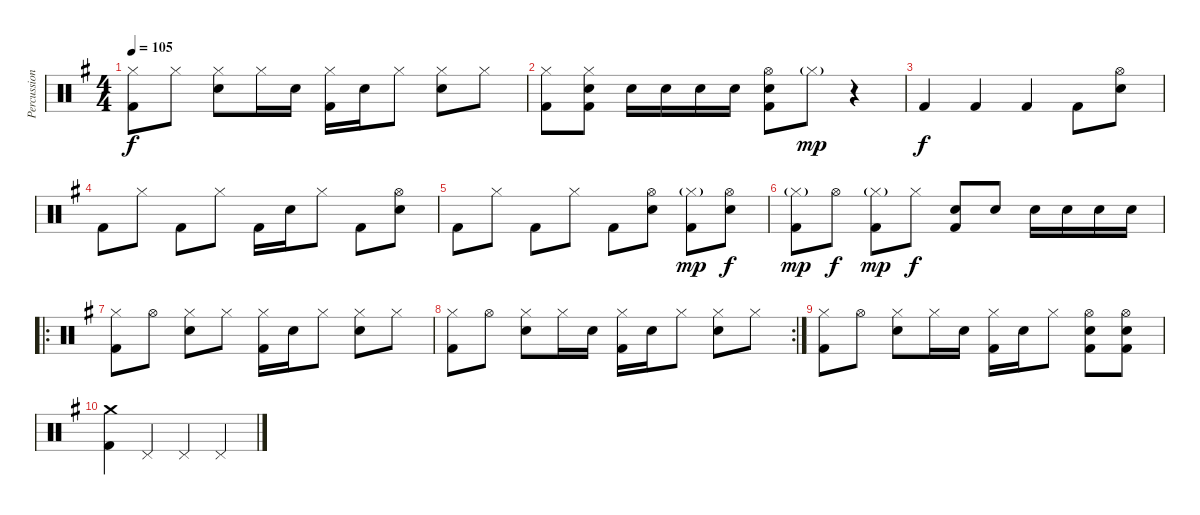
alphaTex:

\track ("Percussion" "Percussion") {instrument percussion}
\staff {score}
\articulation defaults
\ts (4 4)
\tempo 105
\clef neutral
\ks g
("Hi-Hat (closed)" "Kick (hit) 2").8{dy f} "Hi-Hat (closed)".8 ("Hi-Hat (closed)" "Electric Snare (hit)").8 "Hi-Hat (closed)".16 "Electric Snare (hit)".16 ("Hi-Hat (closed)" "Kick (hit) 2").16 "Electric Snare (hit)".16 "Hi-Hat (closed)".8 ("Hi-Hat (closed)" "Electric Snare (hit)").8 "Hi-Hat (closed)".8 |
("Hi-Hat (closed)" "Kick (hit) 2").8 ("Hi-Hat (closed)" "Electric Snare (hit)" "Kick (hit) 2").8 "Electric Snare (hit)".16 "Electric Snare (hit)".16 "Electric Snare (hit)".16 "Electric Snare (hit)".16 ("Hi-Hat (open)" "Electric Snare (hit)" "Kick (hit) 2").8 "Hi-Hat (closed)"{g}.8{dy mp} r.4 |
"Kick (hit) 2".4{dy f} "Kick (hit) 2".4 "Kick (hit) 2".4 "Kick (hit) 2".8 ("Hi-Hat (open)" "Electric Snare (hit)").8 |
"Kick (hit) 2".8 "Hi-Hat (closed)".8 "Kick (hit) 2".8 "Hi-Hat (closed)".8 "Kick (hit) 2".16 "Electric Snare (hit)".16 "Hi-Hat (closed)".8 "Kick (hit) 2".8 ("Hi-Hat (open)" "Electric Snare (hit)").8 |
"Kick (hit) 2".8 "Hi-Hat (closed)".8 "Kick (hit) 2".8 "Hi-Hat (closed)".8 "Kick (hit) 2".8 ("Hi-Hat (open)" "Electric Snare (hit)").8 ("Hi-Hat (closed)"{g} "Kick (hit) 2").8{dy mp} ("Hi-Hat (open)" "Electric Snare (hit)").8{dy f} |
("Hi-Hat (closed)"{g} "Kick (hit) 2").8{dy mp} "Hi-Hat (open)".8{dy f} ("Hi-Hat (closed)"{g} "Kick (hit) 2").8{dy mp} "Hi-Hat (closed)".8{dy f} ("Electric Snare (hit)" "Kick (hit) 2").8 "Electric Snare (hit)".8 "Electric Snare (hit)".16 "Electric Snare (hit)".16 "Electric Snare (hit)".16 "Electric Snare (hit)".16 |
\ro
("Hi-Hat (closed)" "Kick (hit) 2").8 "Hi-Hat (open)".8 ("Hi-Hat (closed)" "Electric Snare (hit)").8 "Hi-Hat (closed)".8 ("Hi-Hat (closed)" "Kick (hit) 2").16 "Electric Snare (hit)".16 "Hi-Hat (closed)".8 ("Hi-Hat (closed)" "Electric Snare (hit)").8 "Hi-Hat (closed)".8 |
\rc 2
("Hi-Hat (closed)" "Kick (hit) 2").8 "Hi-Hat (open)".8 ("Hi-Hat (closed)" "Electric Snare (hit)").8 "Hi-Hat (closed)".16 "Electric Snare (hit)".16 ("Hi-Hat (closed)" "Kick (hit) 2").16 "Electric Snare (hit)".16 "Hi-Hat (closed)".8 ("Hi-Hat (closed)" "Electric Snare (hit)").8 "Hi-Hat (closed)".8 |
("Hi-Hat (closed)" "Kick (hit) 2").8 "Hi-Hat (open)".8 ("Hi-Hat (closed)" "Electric Snare (hit)").8 "Hi-Hat (closed)".16 "Electric Snare (hit)".16 ("Hi-Hat (closed)" "Kick (hit) 2").16 "Electric Snare (hit)".16 "Hi-Hat (closed)".8 ("Hi-Hat (open)" "Electric Snare (hit)" "Kick (hit) 2").8 ("Hi-Hat (open)" "Electric Snare (hit)" "Kick (hit) 2").8 |
("Crash medium (hit)" "Kick (hit) 2").4 "Pedal Hi-Hat (hit)".4 "Pedal Hi-Hat (hit)".4 "Pedal Hi-Hat (hit)".4
